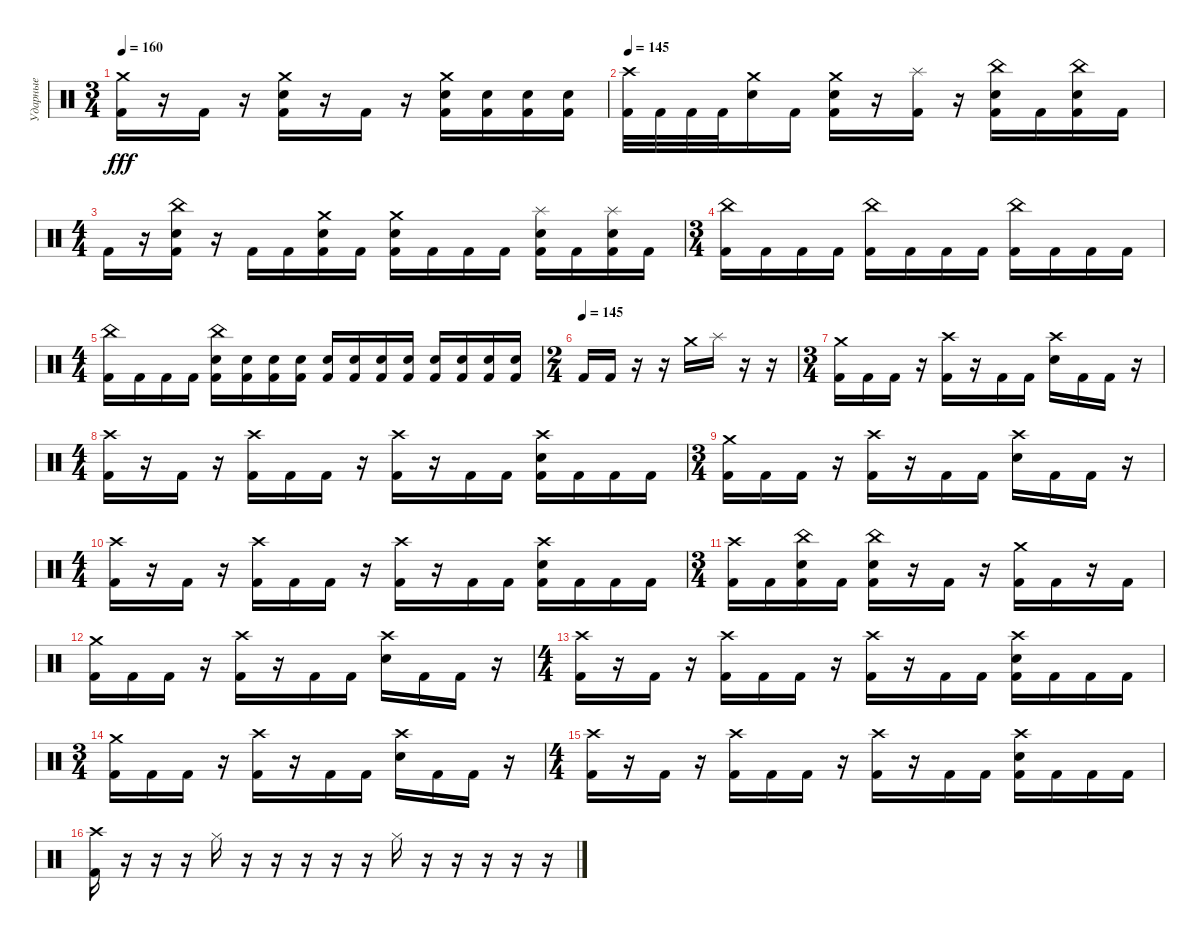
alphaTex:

\track ("Ударные" "Ударные") {instrument percussion}
\staff {score}
\articulation defaults
\ts (3 4)
\tempo 160
\clef neutral
\ks c
("Crash medium (hit)" "Kick (hit) 2").16{dy fff} r.16 "Kick (hit) 2".16 r.16 ("Crash medium (hit)" "Snare (hit) 2" "Kick (hit) 2").16 r.16 "Kick (hit) 2".16 r.16 ("Crash medium (hit)" "Snare (hit) 2" "Kick (hit) 2").16 ("Snare (hit) 2" "Kick (hit) 2").16 ("Snare (hit) 2" "Kick (hit) 2").16 ("Snare (hit) 2" "Kick (hit) 2").16 |
\tempo 145
("Crash high (hit)" "Kick (hit) 2").32 "Kick (hit) 2".32 "Kick (hit) 2".32 "Kick (hit) 2".32 ("Crash medium (hit)" "Snare (hit) 2").16 "Kick (hit) 2".16 ("Crash medium (hit)" "Snare (hit) 2" "Kick (hit) 2").16 r.16 ("Splash (hit)" "Kick (hit) 2").16 r.16 ("China (hit)" "Snare (hit) 2" "Kick (hit) 2").16 "Kick (hit) 2".16 ("China (hit)" "Snare (hit) 2" "Kick (hit) 2").16 "Kick (hit) 2".16 |
\ts (4 4)
"Kick (hit) 2".16 r.16 ("China (hit)" "Snare (hit) 2" "Kick (hit) 2").16 r.16 "Kick (hit) 2".16 "Kick (hit) 2".16 ("Crash medium (hit)" "Snare (hit) 2" "Kick (hit) 2").16 "Kick (hit) 2".16 ("Crash medium (hit)" "Snare (hit) 2" "Kick (hit) 2").16 "Kick (hit) 2".16 "Kick (hit) 2".16 "Kick (hit) 2".16 ("Splash (hit)" "Snare (hit) 2" "Kick (hit) 2").16 "Kick (hit) 2".16 ("Splash (hit)" "Snare (hit) 2" "Kick (hit) 2").16 "Kick (hit) 2".16 |
\ts (3 4)
("China (hit)" "Kick (hit) 2").16 "Kick (hit) 2".16 "Kick (hit) 2".16 "Kick (hit) 2".16 ("China (hit)" "Kick (hit) 2").16 "Kick (hit) 2".16 "Kick (hit) 2".16 "Kick (hit) 2".16 ("China (hit)" "Kick (hit) 2").16 "Kick (hit) 2".16 "Kick (hit) 2".16 "Kick (hit) 2".16 |
\ts (4 4)
("China (hit)" "Kick (hit) 2").16 "Kick (hit) 2".16 "Kick (hit) 2".16 "Kick (hit) 2".16 ("China (hit)" "Snare (hit) 2" "Kick (hit) 2").16 ("Snare (hit) 2" "Kick (hit) 2").16 ("Snare (hit) 2" "Kick (hit) 2").16 ("Snare (hit) 2" "Kick (hit) 2").16 ("Snare (hit) 2" "Kick (hit) 2").16 ("Snare (hit) 2" "Kick (hit) 2").16 ("Snare (hit) 2" "Kick (hit) 2").16 ("Snare (hit) 2" "Kick (hit) 2").16 ("Snare (hit) 2" "Kick (hit) 2").16 ("Snare (hit) 2" "Kick (hit) 2").16 ("Snare (hit) 2" "Kick (hit) 2").16 ("Snare (hit) 2" "Kick (hit) 2").16 |
\ts (2 4)
\tempo (145)
"Kick (hit) 2".16 "Kick (hit) 2".16 r.16 r.16 "Crash medium (hit)".16 "Splash (hit)".16 r.16 r.16 |
\ts (3 4)
("Crash medium (hit)" "Kick (hit) 2").16 "Kick (hit) 2".16 "Kick (hit) 2".16 r.16 ("Crash high (hit)" "Kick (hit) 2").16 r.16 "Kick (hit) 2".16 "Kick (hit) 2".16 ("Crash high (hit)" "Snare (hit) 2").16 "Kick (hit) 2".16 "Kick (hit) 2".16 r.16 |
\ts (4 4)
("Crash high (hit)" "Kick (hit) 2").16 r.16 "Kick (hit) 2".16 r.16 ("Crash high (hit)" "Kick (hit) 2").16 "Kick (hit) 2".16 "Kick (hit) 2".16 r.16 ("Crash high (hit)" "Kick (hit) 2").16 r.16 "Kick (hit) 2".16 "Kick (hit) 2".16 ("Crash high (hit)" "Snare (hit) 2" "Kick (hit) 2").16 "Kick (hit) 2".16 "Kick (hit) 2".16 "Kick (hit) 2".16 |
\ts (3 4)
("Crash medium (hit)" "Kick (hit) 2").16 "Kick (hit) 2".16 "Kick (hit) 2".16 r.16 ("Crash high (hit)" "Kick (hit) 2").16 r.16 "Kick (hit) 2".16 "Kick (hit) 2".16 ("Crash high (hit)" "Snare (hit) 2").16 "Kick (hit) 2".16 "Kick (hit) 2".16 r.16 |
\ts (4 4)
("Crash high (hit)" "Kick (hit) 2").16 r.16 "Kick (hit) 2".16 r.16 ("Crash high (hit)" "Kick (hit) 2").16 "Kick (hit) 2".16 "Kick (hit) 2".16 r.16 ("Crash high (hit)" "Kick (hit) 2").16 r.16 "Kick (hit) 2".16 "Kick (hit) 2".16 ("Crash high (hit)" "Snare (hit) 2" "Kick (hit) 2").16 "Kick (hit) 2".16 "Kick (hit) 2".16 "Kick (hit) 2".16 |
\ts (3 4)
("Crash high (hit)" "Kick (hit) 2").16 "Kick (hit) 2".16 ("China (hit)" "Snare (hit) 2" "Kick (hit) 2").16 "Kick (hit) 2".16 ("China (hit)" "Snare (hit) 2" "Kick (hit) 2").16 r.16 "Kick (hit) 2".16 r.16 ("Crash medium (hit)" "Kick (hit) 2").16 "Kick (hit) 2".16 r.16 "Kick (hit) 2".16 |
("Crash medium (hit)" "Kick (hit) 2").16 "Kick (hit) 2".16 "Kick (hit) 2".16 r.16 ("Crash high (hit)" "Kick (hit) 2").16 r.16 "Kick (hit) 2".16 "Kick (hit) 2".16 ("Crash high (hit)" "Snare (hit) 2").16 "Kick (hit) 2".16 "Kick (hit) 2".16 r.16 |
\ts (4 4)
("Crash high (hit)" "Kick (hit) 2").16 r.16 "Kick (hit) 2".16 r.16 ("Crash high (hit)" "Kick (hit) 2").16 "Kick (hit) 2".16 "Kick (hit) 2".16 r.16 ("Crash high (hit)" "Kick (hit) 2").16 r.16 "Kick (hit) 2".16 "Kick (hit) 2".16 ("Crash high (hit)" "Snare (hit) 2" "Kick (hit) 2").16 "Kick (hit) 2".16 "Kick (hit) 2".16 "Kick (hit) 2".16 |
\ts (3 4)
("Crash medium (hit)" "Kick (hit) 2").16 "Kick (hit) 2".16 "Kick (hit) 2".16 r.16 ("Crash high (hit)" "Kick (hit) 2").16 r.16 "Kick (hit) 2".16 "Kick (hit) 2".16 ("Crash high (hit)" "Snare (hit) 2").16 "Kick (hit) 2".16 "Kick (hit) 2".16 r.16 |
\ts (4 4)
("Crash high (hit)" "Kick (hit) 2").16 r.16 "Kick (hit) 2".16 r.16 ("Crash high (hit)" "Kick (hit) 2").16 "Kick (hit) 2".16 "Kick (hit) 2".16 r.16 ("Crash high (hit)" "Kick (hit) 2").16 r.16 "Kick (hit) 2".16 "Kick (hit) 2".16 ("Crash high (hit)" "Snare (hit) 2" "Kick (hit) 2").16 "Kick (hit) 2".16 "Kick (hit) 2".16 "Kick (hit) 2".16 |
("Crash high (hit)" "Kick (hit) 2").16 r.16 r.16 r.16 "Hi-Hat (closed)".16 r.16 r.16 r.16 r.16 r.16 "Hi-Hat (closed)".16 r.16 r.16 r.16 r.16 r.16
